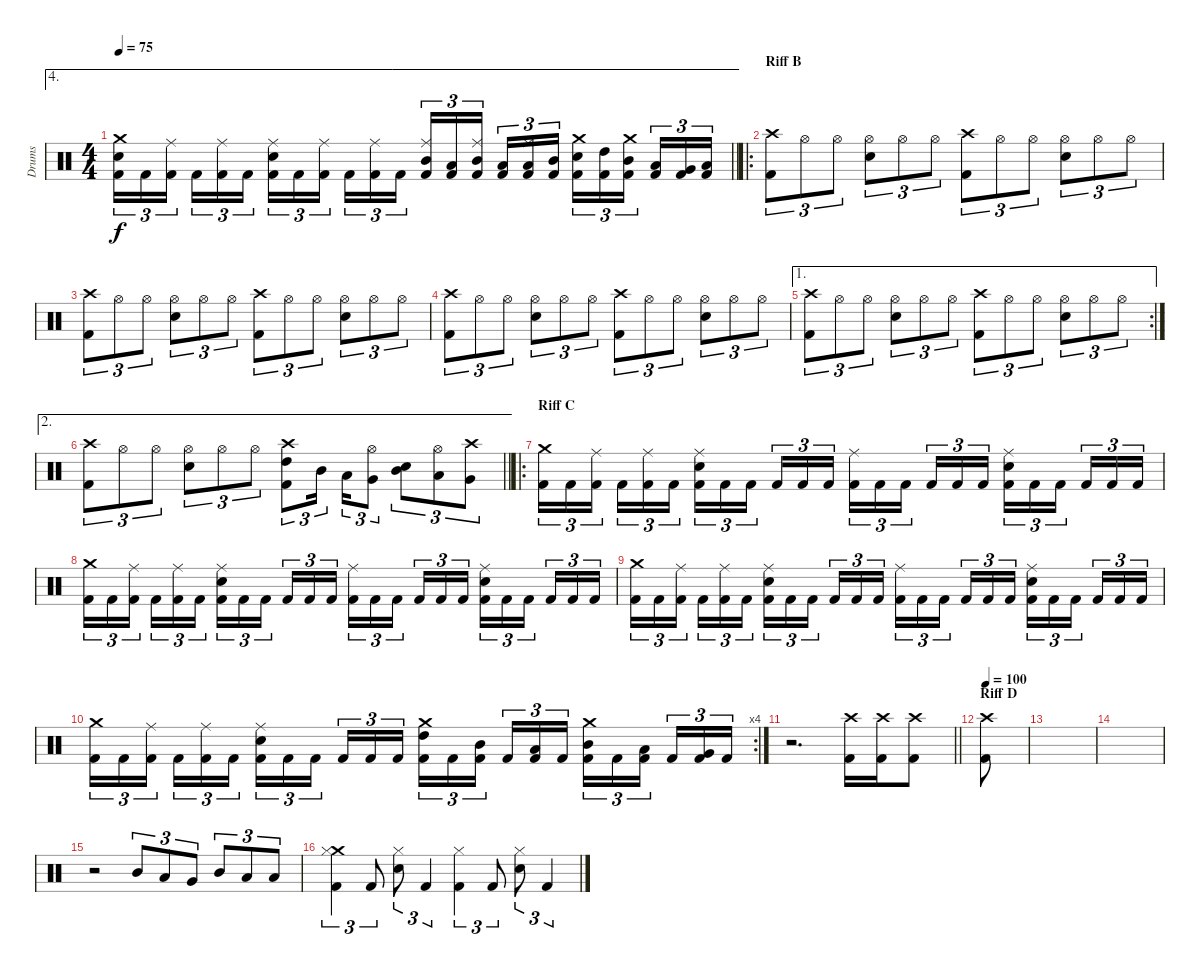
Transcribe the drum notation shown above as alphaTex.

\track ("Drums" "Drums") {instrument percussion}
\staff {score}
\articulation defaults
\ae 4
\ts (4 4)
\tempo 75
\clef neutral
\barLineRight lightlight
\ks c
("Crash medium (hit)" "Electric Snare (hit)" "Kick (hit) 2").16{tu (3 2) dy f} "Kick (hit) 2".16{tu (3 2)} ("Ride (middle)" "Kick (hit) 2").16{tu (3 2) beam splitsecondary} "Kick (hit) 2".16{tu (3 2)} ("Ride (middle)" "Kick (hit) 2").16{tu (3 2)} "Kick (hit) 2".16{tu (3 2)} ("Ride (middle)" "Electric Snare (hit)" "Kick (hit) 2").16{tu (3 2)} "Kick (hit) 2".16{tu (3 2)} ("Ride (middle)" "Kick (hit) 2").16{tu (3 2) beam splitsecondary} "Kick (hit) 2".16{tu (3 2)} ("Ride (middle)" "Kick (hit) 2").16{tu (3 2)} "Kick (hit) 2".16{tu (3 2)} ("Ride (middle)" "Mid Tom (hit)" "Kick (hit) 2").16{tu (3 2)} ("Low Tom (hit)" "Kick (hit) 2").16{tu (3 2)} ("Ride (middle)" "Mid Tom (hit)" "Kick (hit) 2").16{tu (3 2) beam splitsecondary} ("Low Tom (hit)" "Kick (hit) 2").16{tu (3 2)} ("Ride (middle)" "Low Tom (hit)" "Kick (hit) 2").16{tu (3 2)} ("Mid Tom (hit)" "Kick (hit) 2").16{tu (3 2)} ("Crash medium (hit)" "Electric Snare (hit)" "Kick (hit) 2").16{tu (3 2)} ("High Tom (hit)" "Kick (hit) 2").16{tu (3 2)} ("Crash medium (hit)" "Mid Tom (hit)" "Kick (hit) 2").16{tu (3 2) beam splitsecondary} ("Low Tom (hit)" "Kick (hit) 2").16{tu (3 2)} ("Very Low Tom (hit)" "Kick (hit) 2").16{tu (3 2)} ("Low Floor Tom (hit)" "Kick (hit) 2").16{tu (3 2)} |
\ro
\section ("" "Riff B")
("Crash high (hit)" "Kick (hit) 2").8{tu (3 2)} "Hi-Hat (open)".8{tu (3 2)} "Hi-Hat (open)".8{tu (3 2)} ("Hi-Hat (open)" "Electric Snare (hit)").8{tu (3 2)} "Hi-Hat (open)".8{tu (3 2)} "Hi-Hat (open)".8{tu (3 2)} ("Crash high (hit)" "Kick (hit) 2").8{tu (3 2)} "Hi-Hat (open)".8{tu (3 2)} "Hi-Hat (open)".8{tu (3 2)} ("Hi-Hat (open)" "Electric Snare (hit)").8{tu (3 2)} "Hi-Hat (open)".8{tu (3 2)} "Hi-Hat (open)".8{tu (3 2)} |
("Crash high (hit)" "Kick (hit) 2").8{tu (3 2)} "Hi-Hat (open)".8{tu (3 2)} "Hi-Hat (open)".8{tu (3 2)} ("Hi-Hat (open)" "Electric Snare (hit)").8{tu (3 2)} "Hi-Hat (open)".8{tu (3 2)} "Hi-Hat (open)".8{tu (3 2)} ("Crash high (hit)" "Kick (hit) 2").8{tu (3 2)} "Hi-Hat (open)".8{tu (3 2)} "Hi-Hat (open)".8{tu (3 2)} ("Hi-Hat (open)" "Electric Snare (hit)").8{tu (3 2)} "Hi-Hat (open)".8{tu (3 2)} "Hi-Hat (open)".8{tu (3 2)} |
("Crash high (hit)" "Kick (hit) 2").8{tu (3 2)} "Hi-Hat (open)".8{tu (3 2)} "Hi-Hat (open)".8{tu (3 2)} ("Hi-Hat (open)" "Electric Snare (hit)").8{tu (3 2)} "Hi-Hat (open)".8{tu (3 2)} "Hi-Hat (open)".8{tu (3 2)} ("Crash high (hit)" "Kick (hit) 2").8{tu (3 2)} "Hi-Hat (open)".8{tu (3 2)} "Hi-Hat (open)".8{tu (3 2)} ("Hi-Hat (open)" "Electric Snare (hit)").8{tu (3 2)} "Hi-Hat (open)".8{tu (3 2)} "Hi-Hat (open)".8{tu (3 2)} |
\ae 1
\rc 2
("Crash high (hit)" "Kick (hit) 2").8{tu (3 2)} "Hi-Hat (open)".8{tu (3 2)} "Hi-Hat (open)".8{tu (3 2)} ("Hi-Hat (open)" "Electric Snare (hit)").8{tu (3 2)} "Hi-Hat (open)".8{tu (3 2)} "Hi-Hat (open)".8{tu (3 2)} ("Crash high (hit)" "Kick (hit) 2").8{tu (3 2)} "Hi-Hat (open)".8{tu (3 2)} "Hi-Hat (open)".8{tu (3 2)} ("Hi-Hat (open)" "Electric Snare (hit)").8{tu (3 2)} "Hi-Hat (open)".8{tu (3 2)} "Hi-Hat (open)".8{tu (3 2)} |
\ae 2
\barLineRight lightlight
("Crash high (hit)" "Kick (hit) 2").8{tu (3 2)} "Hi-Hat (open)".8{tu (3 2)} "Hi-Hat (open)".8{tu (3 2)} ("Hi-Hat (open)" "Electric Snare (hit)").8{tu (3 2)} "Hi-Hat (open)".8{tu (3 2)} "Hi-Hat (open)".8{tu (3 2)} ("Crash high (hit)" "High Tom (hit)" "Kick (hit) 2").8{tu (3 2)} "Mid Tom (hit)".16{tu (3 2) beam splitsecondary} "Low Tom (hit)".16{tu (3 2)} ("Hi-Hat (open)" "Very Low Tom (hit)").8{tu (3 2)} ("Mid Tom (hit)" "Electric Snare (hit)").8{tu (3 2)} ("Hi-Hat (open)" "Low Tom (hit)").8{tu (3 2)} ("Crash high (hit)" "Very Low Tom (hit)").8{tu (3 2)} |
\ro
\section ("" "Riff C")
("Crash medium (hit)" "Kick (hit) 2").16{tu (3 2)} "Kick (hit) 2".16{tu (3 2)} ("Ride (middle)" "Kick (hit) 2").16{tu (3 2) beam splitsecondary} "Kick (hit) 2".16{tu (3 2)} ("Ride (middle)" "Kick (hit) 2").16{tu (3 2)} "Kick (hit) 2".16{tu (3 2)} ("Ride (middle)" "Electric Snare (hit)" "Kick (hit) 2").16{tu (3 2)} "Kick (hit) 2".16{tu (3 2)} "Kick (hit) 2".16{tu (3 2) beam splitsecondary} "Kick (hit) 2".16{tu (3 2)} "Kick (hit) 2".16{tu (3 2)} "Kick (hit) 2".16{tu (3 2)} ("Ride (middle)" "Kick (hit) 2").16{tu (3 2)} "Kick (hit) 2".16{tu (3 2)} "Kick (hit) 2".16{tu (3 2) beam splitsecondary} "Kick (hit) 2".16{tu (3 2)} "Kick (hit) 2".16{tu (3 2)} "Kick (hit) 2".16{tu (3 2)} ("Ride (middle)" "Electric Snare (hit)" "Kick (hit) 2").16{tu (3 2)} "Kick (hit) 2".16{tu (3 2)} "Kick (hit) 2".16{tu (3 2) beam splitsecondary} "Kick (hit) 2".16{tu (3 2)} "Kick (hit) 2".16{tu (3 2)} "Kick (hit) 2".16{tu (3 2)} |
("Crash medium (hit)" "Kick (hit) 2").16{tu (3 2)} "Kick (hit) 2".16{tu (3 2)} ("Ride (middle)" "Kick (hit) 2").16{tu (3 2) beam splitsecondary} "Kick (hit) 2".16{tu (3 2)} ("Ride (middle)" "Kick (hit) 2").16{tu (3 2)} "Kick (hit) 2".16{tu (3 2)} ("Ride (middle)" "Electric Snare (hit)" "Kick (hit) 2").16{tu (3 2)} "Kick (hit) 2".16{tu (3 2)} "Kick (hit) 2".16{tu (3 2) beam splitsecondary} "Kick (hit) 2".16{tu (3 2)} "Kick (hit) 2".16{tu (3 2)} "Kick (hit) 2".16{tu (3 2)} ("Ride (middle)" "Kick (hit) 2").16{tu (3 2)} "Kick (hit) 2".16{tu (3 2)} "Kick (hit) 2".16{tu (3 2) beam splitsecondary} "Kick (hit) 2".16{tu (3 2)} "Kick (hit) 2".16{tu (3 2)} "Kick (hit) 2".16{tu (3 2)} ("Ride (middle)" "Electric Snare (hit)" "Kick (hit) 2").16{tu (3 2)} "Kick (hit) 2".16{tu (3 2)} "Kick (hit) 2".16{tu (3 2) beam splitsecondary} "Kick (hit) 2".16{tu (3 2)} "Kick (hit) 2".16{tu (3 2)} "Kick (hit) 2".16{tu (3 2)} |
("Crash medium (hit)" "Kick (hit) 2").16{tu (3 2)} "Kick (hit) 2".16{tu (3 2)} ("Ride (middle)" "Kick (hit) 2").16{tu (3 2) beam splitsecondary} "Kick (hit) 2".16{tu (3 2)} ("Ride (middle)" "Kick (hit) 2").16{tu (3 2)} "Kick (hit) 2".16{tu (3 2)} ("Ride (middle)" "Electric Snare (hit)" "Kick (hit) 2").16{tu (3 2)} "Kick (hit) 2".16{tu (3 2)} "Kick (hit) 2".16{tu (3 2) beam splitsecondary} "Kick (hit) 2".16{tu (3 2)} "Kick (hit) 2".16{tu (3 2)} "Kick (hit) 2".16{tu (3 2)} ("Ride (middle)" "Kick (hit) 2").16{tu (3 2)} "Kick (hit) 2".16{tu (3 2)} "Kick (hit) 2".16{tu (3 2) beam splitsecondary} "Kick (hit) 2".16{tu (3 2)} "Kick (hit) 2".16{tu (3 2)} "Kick (hit) 2".16{tu (3 2)} ("Ride (middle)" "Electric Snare (hit)" "Kick (hit) 2").16{tu (3 2)} "Kick (hit) 2".16{tu (3 2)} "Kick (hit) 2".16{tu (3 2) beam splitsecondary} "Kick (hit) 2".16{tu (3 2)} "Kick (hit) 2".16{tu (3 2)} "Kick (hit) 2".16{tu (3 2)} |
\rc 4
("Crash medium (hit)" "Kick (hit) 2").16{tu (3 2)} "Kick (hit) 2".16{tu (3 2)} ("Ride (middle)" "Kick (hit) 2").16{tu (3 2) beam splitsecondary} "Kick (hit) 2".16{tu (3 2)} ("Ride (middle)" "Kick (hit) 2").16{tu (3 2)} "Kick (hit) 2".16{tu (3 2)} ("Ride (middle)" "Electric Snare (hit)" "Kick (hit) 2").16{tu (3 2)} "Kick (hit) 2".16{tu (3 2)} "Kick (hit) 2".16{tu (3 2) beam splitsecondary} "Kick (hit) 2".16{tu (3 2)} "Kick (hit) 2".16{tu (3 2)} "Kick (hit) 2".16{tu (3 2)} ("Crash medium (hit)" "High Tom (hit)" "Kick (hit) 2").16{tu (3 2)} "Kick (hit) 2".16{tu (3 2)} ("Mid Tom (hit)" "Kick (hit) 2").16{tu (3 2) beam splitsecondary} "Kick (hit) 2".16{tu (3 2)} ("Low Tom (hit)" "Kick (hit) 2").16{tu (3 2)} "Kick (hit) 2".16{tu (3 2)} ("Crash medium (hit)" "Mid Tom (hit)" "Kick (hit) 2").16{tu (3 2)} "Kick (hit) 2".16{tu (3 2)} ("Low Tom (hit)" "Kick (hit) 2").16{tu (3 2) beam splitsecondary} "Kick (hit) 2".16{tu (3 2)} ("Very Low Tom (hit)" "Kick (hit) 2").16{tu (3 2)} "Kick (hit) 2".16{tu (3 2)} |
\barLineRight lightlight
r.2{d} ("Crash high (hit)" "Kick (hit) 2").16 ("Crash high (hit)" "Kick (hit) 2").16 ("Crash high (hit)" "Kick (hit) 2").8 |
\section ("" "Riff D")
\tempo 100
("Crash high (hit)" "Kick (hit) 2").8 |
|
|
r.2 "Mid Tom (hit)".8{tu (3 2)} "Low Tom (hit)".8{tu (3 2)} "Very Low Tom (hit)".8{tu (3 2)} "Mid Tom (hit)".8{tu (3 2)} "Low Tom (hit)".8{tu (3 2)} "Low Floor Tom (hit)".8{tu (3 2)} |
("Crash medium (hit)" "Hi-Hat (closed)" "Kick (hit) 2").4{tu (3 2)} "Kick (hit) 2".8{tu (3 2)} ("Hi-Hat (closed)" "Electric Snare (hit)").8{tu (3 2)} "Kick (hit) 2".4{tu (3 2)} ("Hi-Hat (closed)" "Kick (hit) 2").4{tu (3 2)} "Kick (hit) 2".8{tu (3 2)} ("Hi-Hat (closed)" "Electric Snare (hit)").8{tu (3 2)} "Kick (hit) 2".4{tu (3 2)}
